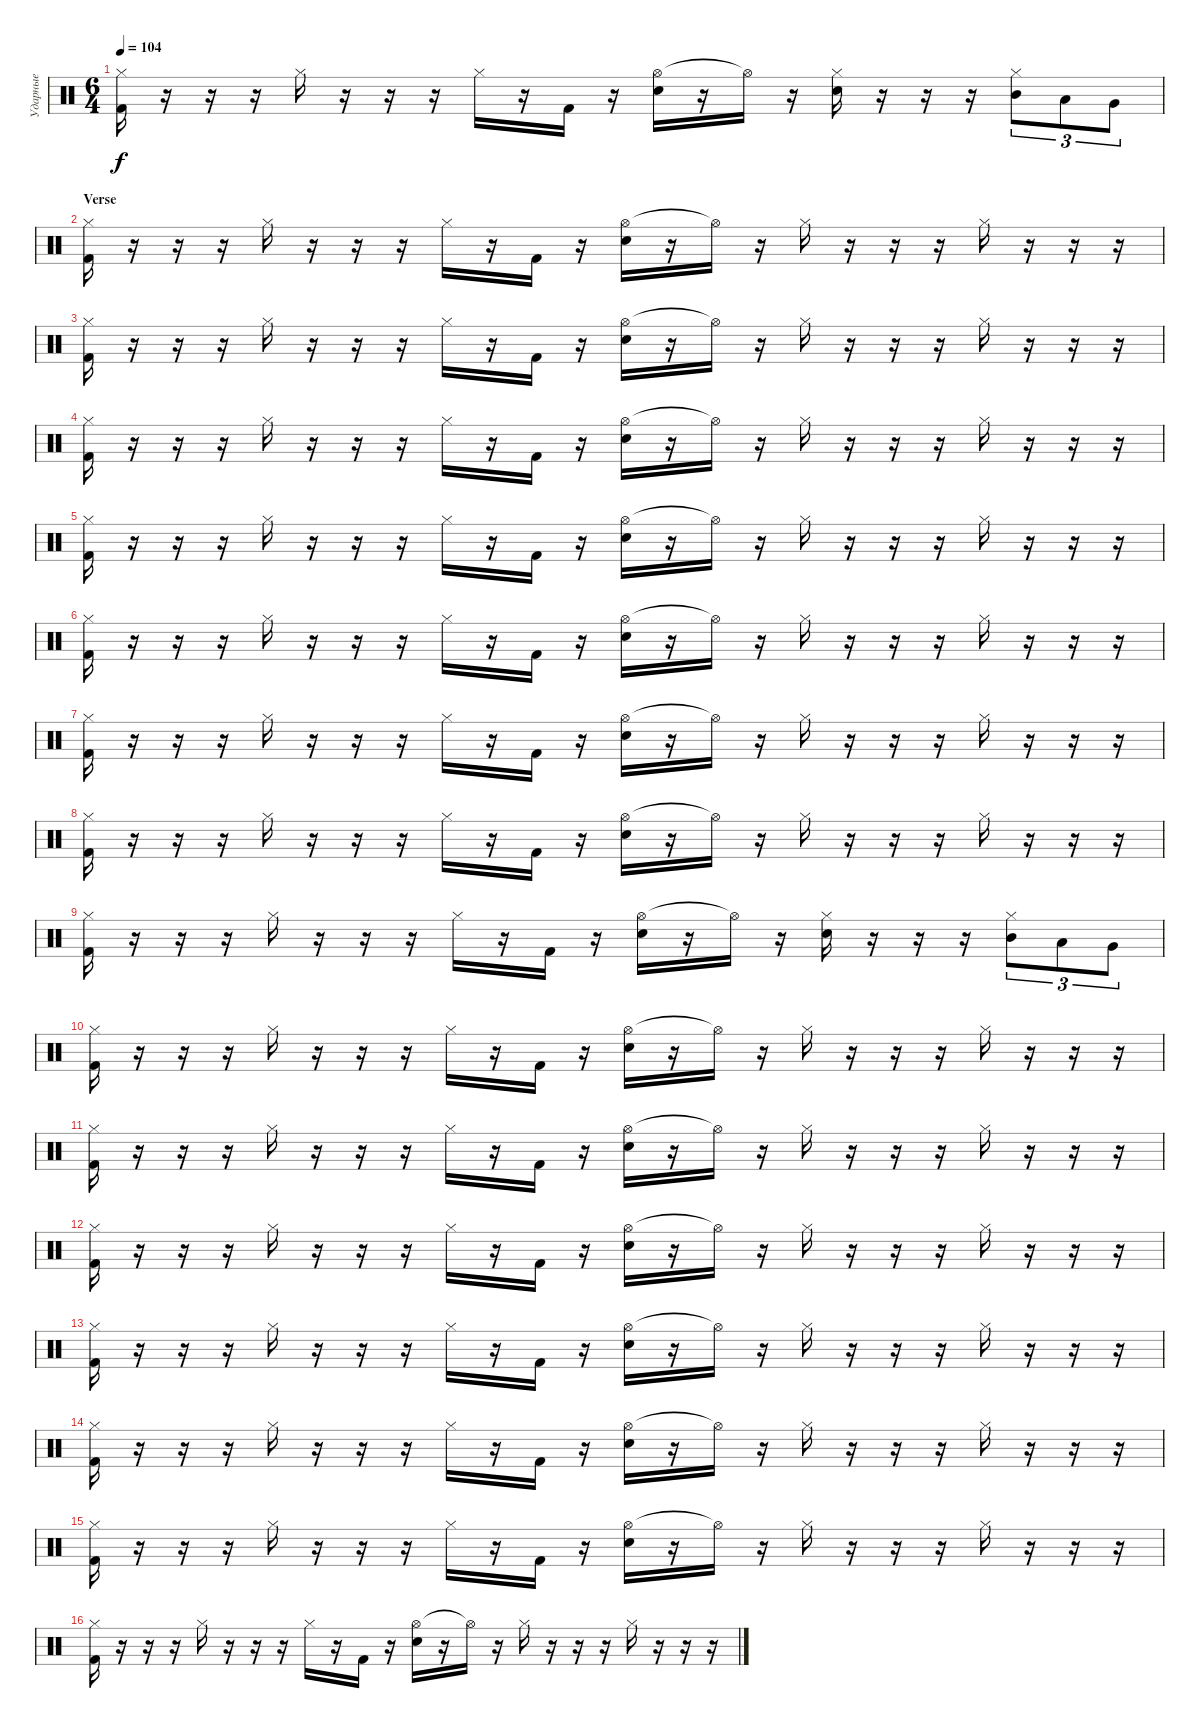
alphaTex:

\track ("Ударные" "Ударные") {instrument percussion}
\staff {score}
\articulation defaults
\ts (6 4)
\tempo 104
\clef neutral
\ks c
("Hi-Hat (closed)" "Kick (hit) 2").16{dy f} r.16 r.16 r.16 "Hi-Hat (closed)".16 r.16 r.16 r.16 "Hi-Hat (closed)".16 r.16 "Kick (hit) 2".16 r.16 ("Hi-Hat (open)" "Electric Snare (hit)").16 r.16 "Hi-Hat (open)"{t}.16 r.16 ("Hi-Hat (closed)" "Electric Snare (hit)").16 r.16 r.16 r.16 ("Hi-Hat (closed)" "Mid Tom (hit)").8{tu (3 2)} "Low Tom (hit)".8{tu (3 2)} "Very Low Tom (hit)".8{tu (3 2)} |
\section ("" "Verse")
("Hi-Hat (closed)" "Kick (hit) 2").16 r.16 r.16 r.16 "Hi-Hat (closed)".16 r.16 r.16 r.16 "Hi-Hat (closed)".16 r.16 "Kick (hit) 2".16 r.16 ("Hi-Hat (open)" "Electric Snare (hit)").16 r.16 "Hi-Hat (open)"{t}.16 r.16 "Hi-Hat (closed)".16 r.16 r.16 r.16 "Hi-Hat (closed)".16 r.16 r.16 r.16 |
("Hi-Hat (closed)" "Kick (hit) 2").16 r.16 r.16 r.16 "Hi-Hat (closed)".16 r.16 r.16 r.16 "Hi-Hat (closed)".16 r.16 "Kick (hit) 2".16 r.16 ("Hi-Hat (open)" "Electric Snare (hit)").16 r.16 "Hi-Hat (open)"{t}.16 r.16 "Hi-Hat (closed)".16 r.16 r.16 r.16 "Hi-Hat (closed)".16 r.16 r.16 r.16 |
("Hi-Hat (closed)" "Kick (hit) 2").16 r.16 r.16 r.16 "Hi-Hat (closed)".16 r.16 r.16 r.16 "Hi-Hat (closed)".16 r.16 "Kick (hit) 2".16 r.16 ("Hi-Hat (open)" "Electric Snare (hit)").16 r.16 "Hi-Hat (open)"{t}.16 r.16 "Hi-Hat (closed)".16 r.16 r.16 r.16 "Hi-Hat (closed)".16 r.16 r.16 r.16 |
("Hi-Hat (closed)" "Kick (hit) 2").16 r.16 r.16 r.16 "Hi-Hat (closed)".16 r.16 r.16 r.16 "Hi-Hat (closed)".16 r.16 "Kick (hit) 2".16 r.16 ("Hi-Hat (open)" "Electric Snare (hit)").16 r.16 "Hi-Hat (open)"{t}.16 r.16 "Hi-Hat (closed)".16 r.16 r.16 r.16 "Hi-Hat (closed)".16 r.16 r.16 r.16 |
("Hi-Hat (closed)" "Kick (hit) 2").16 r.16 r.16 r.16 "Hi-Hat (closed)".16 r.16 r.16 r.16 "Hi-Hat (closed)".16 r.16 "Kick (hit) 2".16 r.16 ("Hi-Hat (open)" "Electric Snare (hit)").16 r.16 "Hi-Hat (open)"{t}.16 r.16 "Hi-Hat (closed)".16 r.16 r.16 r.16 "Hi-Hat (closed)".16 r.16 r.16 r.16 |
("Hi-Hat (closed)" "Kick (hit) 2").16 r.16 r.16 r.16 "Hi-Hat (closed)".16 r.16 r.16 r.16 "Hi-Hat (closed)".16 r.16 "Kick (hit) 2".16 r.16 ("Hi-Hat (open)" "Electric Snare (hit)").16 r.16 "Hi-Hat (open)"{t}.16 r.16 "Hi-Hat (closed)".16 r.16 r.16 r.16 "Hi-Hat (closed)".16 r.16 r.16 r.16 |
("Hi-Hat (closed)" "Kick (hit) 2").16 r.16 r.16 r.16 "Hi-Hat (closed)".16 r.16 r.16 r.16 "Hi-Hat (closed)".16 r.16 "Kick (hit) 2".16 r.16 ("Hi-Hat (open)" "Electric Snare (hit)").16 r.16 "Hi-Hat (open)"{t}.16 r.16 "Hi-Hat (closed)".16 r.16 r.16 r.16 "Hi-Hat (closed)".16 r.16 r.16 r.16 |
("Hi-Hat (closed)" "Kick (hit) 2").16 r.16 r.16 r.16 "Hi-Hat (closed)".16 r.16 r.16 r.16 "Hi-Hat (closed)".16 r.16 "Kick (hit) 2".16 r.16 ("Hi-Hat (open)" "Electric Snare (hit)").16 r.16 "Hi-Hat (open)"{t}.16 r.16 ("Hi-Hat (closed)" "Electric Snare (hit)").16 r.16 r.16 r.16 ("Hi-Hat (closed)" "Mid Tom (hit)").8{tu (3 2)} "Low Tom (hit)".8{tu (3 2)} "Very Low Tom (hit)".8{tu (3 2)} |
("Hi-Hat (closed)" "Kick (hit) 2").16 r.16 r.16 r.16 "Hi-Hat (closed)".16 r.16 r.16 r.16 "Hi-Hat (closed)".16 r.16 "Kick (hit) 2".16 r.16 ("Hi-Hat (open)" "Electric Snare (hit)").16 r.16 "Hi-Hat (open)"{t}.16 r.16 "Hi-Hat (closed)".16 r.16 r.16 r.16 "Hi-Hat (closed)".16 r.16 r.16 r.16 |
("Hi-Hat (closed)" "Kick (hit) 2").16 r.16 r.16 r.16 "Hi-Hat (closed)".16 r.16 r.16 r.16 "Hi-Hat (closed)".16 r.16 "Kick (hit) 2".16 r.16 ("Hi-Hat (open)" "Electric Snare (hit)").16 r.16 "Hi-Hat (open)"{t}.16 r.16 "Hi-Hat (closed)".16 r.16 r.16 r.16 "Hi-Hat (closed)".16 r.16 r.16 r.16 |
("Hi-Hat (closed)" "Kick (hit) 2").16 r.16 r.16 r.16 "Hi-Hat (closed)".16 r.16 r.16 r.16 "Hi-Hat (closed)".16 r.16 "Kick (hit) 2".16 r.16 ("Hi-Hat (open)" "Electric Snare (hit)").16 r.16 "Hi-Hat (open)"{t}.16 r.16 "Hi-Hat (closed)".16 r.16 r.16 r.16 "Hi-Hat (closed)".16 r.16 r.16 r.16 |
("Hi-Hat (closed)" "Kick (hit) 2").16 r.16 r.16 r.16 "Hi-Hat (closed)".16 r.16 r.16 r.16 "Hi-Hat (closed)".16 r.16 "Kick (hit) 2".16 r.16 ("Hi-Hat (open)" "Electric Snare (hit)").16 r.16 "Hi-Hat (open)"{t}.16 r.16 "Hi-Hat (closed)".16 r.16 r.16 r.16 "Hi-Hat (closed)".16 r.16 r.16 r.16 |
("Hi-Hat (closed)" "Kick (hit) 2").16 r.16 r.16 r.16 "Hi-Hat (closed)".16 r.16 r.16 r.16 "Hi-Hat (closed)".16 r.16 "Kick (hit) 2".16 r.16 ("Hi-Hat (open)" "Electric Snare (hit)").16 r.16 "Hi-Hat (open)"{t}.16 r.16 "Hi-Hat (closed)".16 r.16 r.16 r.16 "Hi-Hat (closed)".16 r.16 r.16 r.16 |
("Hi-Hat (closed)" "Kick (hit) 2").16 r.16 r.16 r.16 "Hi-Hat (closed)".16 r.16 r.16 r.16 "Hi-Hat (closed)".16 r.16 "Kick (hit) 2".16 r.16 ("Hi-Hat (open)" "Electric Snare (hit)").16 r.16 "Hi-Hat (open)"{t}.16 r.16 "Hi-Hat (closed)".16 r.16 r.16 r.16 "Hi-Hat (closed)".16 r.16 r.16 r.16 |
("Hi-Hat (closed)" "Kick (hit) 2").16 r.16 r.16 r.16 "Hi-Hat (closed)".16 r.16 r.16 r.16 "Hi-Hat (closed)".16 r.16 "Kick (hit) 2".16 r.16 ("Hi-Hat (open)" "Electric Snare (hit)").16 r.16 "Hi-Hat (open)"{t}.16 r.16 "Hi-Hat (closed)".16 r.16 r.16 r.16 "Hi-Hat (closed)".16 r.16 r.16 r.16
